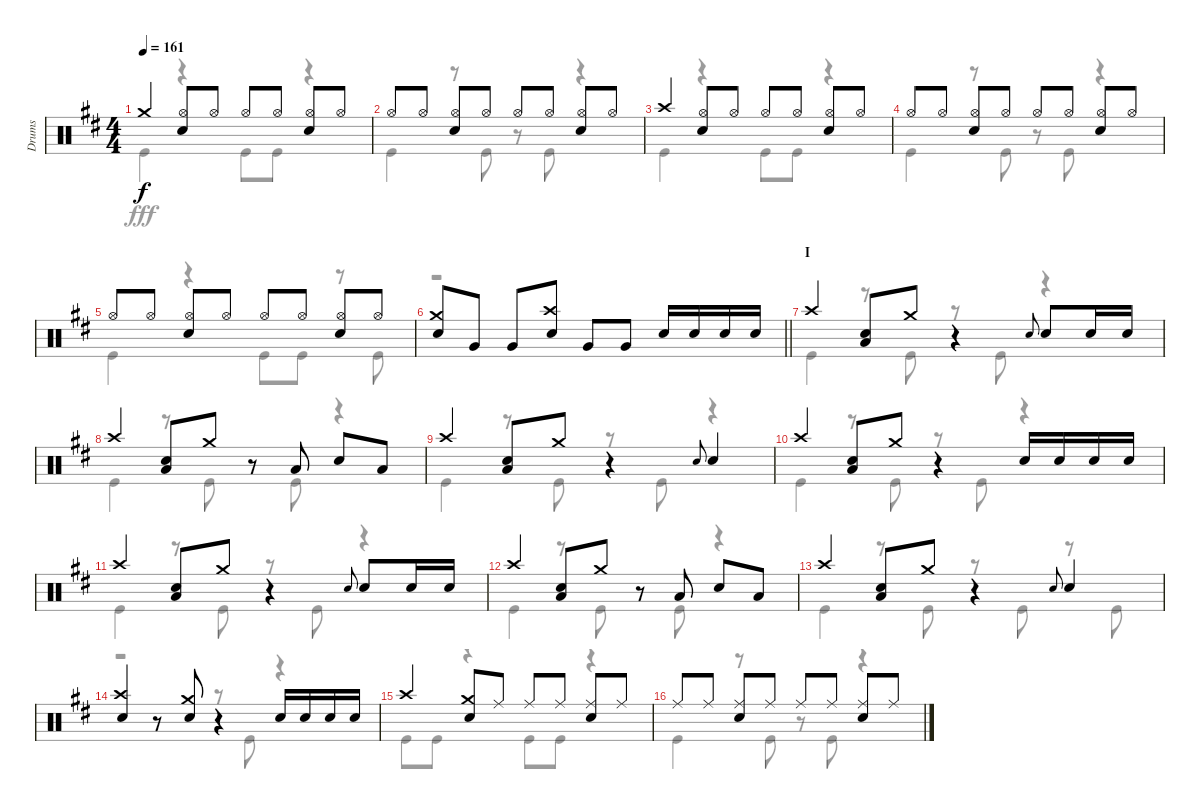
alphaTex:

\track ("Drums" "Drums") {instrument percussion}
\staff {score}
\articulation defaults
\voice
\ts (4 4)
\tempo 161
\clef neutral
\ks d "Crash medium (hit)".4{dy f}
("Hi-Hat (open)" "Snare (hit) 2").8 "Hi-Hat (open)".8 "Hi-Hat (open)".8 "Hi-Hat (open)".8 ("Hi-Hat (open)" "Snare (hit) 2").8 "Hi-Hat (open)".8 |
"Hi-Hat (open)".8 "Hi-Hat (open)".8 ("Hi-Hat (open)" "Snare (hit) 2").8 "Hi-Hat (open)".8 "Hi-Hat (open)".8 "Hi-Hat (open)".8 ("Hi-Hat (open)" "Snare (hit) 2").8 "Hi-Hat (open)".8 |
"Crash high (hit)".4 ("Hi-Hat (open)" "Snare (hit) 2").8 "Hi-Hat (open)".8 "Hi-Hat (open)".8 "Hi-Hat (open)".8 ("Hi-Hat (open)" "Snare (hit) 2").8 "Hi-Hat (open)".8 |
"Hi-Hat (open)".8 "Hi-Hat (open)".8 ("Hi-Hat (open)" "Snare (hit) 2").8 "Hi-Hat (open)".8 "Hi-Hat (open)".8 "Hi-Hat (open)".8 ("Hi-Hat (open)" "Snare (hit) 2").8 "Hi-Hat (open)".8 |
"Hi-Hat (open)".8 "Hi-Hat (open)".8 ("Hi-Hat (open)" "Snare (hit) 2").8 "Hi-Hat (open)".8 "Hi-Hat (open)".8 "Hi-Hat (open)".8 ("Hi-Hat (open)" "Snare (hit) 2").8 "Hi-Hat (open)".8 |
\barLineRight lightlight
("Crash medium (hit)" "Snare (hit) 2").8 "Very Low Tom (hit)".8 "Very Low Tom (hit)".8 ("Crash high (hit)" "Snare (hit) 2").8 "Very Low Tom (hit)".8 "Very Low Tom (hit)".8 "Snare (hit) 2".16 "Snare (hit) 2".16 "Snare (hit) 2".16 "Snare (hit) 2".16 |
\section ("" "I")
"Crash high (hit)".4 ("Snare (hit) 2" "Low Tom (hit)").8 "Crash medium (hit)".8 r.4 "Snare (hit) 2".8{gr onbeat} "Snare (hit) 2".8 "Snare (hit) 2".16 "Snare (hit) 2".16 |
"Crash high (hit)".4 ("Snare (hit) 2" "Low Tom (hit)").8 "Crash medium (hit)".8 r.8 "Low Tom (hit)".8 "Snare (hit) 2".8 "Low Tom (hit)".8 |
"Crash high (hit)".4 ("Snare (hit) 2" "Low Tom (hit)").8 "Crash medium (hit)".8 r.4 "Snare (hit) 2".8{gr onbeat} "Snare (hit) 2".4 |
"Crash high (hit)".4 ("Snare (hit) 2" "Low Tom (hit)").8 "Crash medium (hit)".8 r.4 "Snare (hit) 2".16 "Snare (hit) 2".16 "Snare (hit) 2".16 "Snare (hit) 2".16 |
"Crash high (hit)".4 ("Snare (hit) 2" "Low Tom (hit)").8 "Crash medium (hit)".8 r.4 "Snare (hit) 2".8{gr onbeat} "Snare (hit) 2".8 "Snare (hit) 2".16 "Snare (hit) 2".16 |
"Crash high (hit)".4 ("Snare (hit) 2" "Low Tom (hit)").8 "Crash medium (hit)".8 r.8 "Low Tom (hit)".8 "Snare (hit) 2".8 "Low Tom (hit)".8 |
"Crash high (hit)".4 ("Snare (hit) 2" "Low Tom (hit)").8 "Crash medium (hit)".8 r.4 "Snare (hit) 2".8{gr onbeat} "Snare (hit) 2".4 |
("Crash high (hit)" "Snare (hit) 2").4 r.8 ("Crash medium (hit)" "Snare (hit) 2").8 r.4 "Snare (hit) 2".16 "Snare (hit) 2".16 "Snare (hit) 2".16 "Snare (hit) 2".16 |
"Crash high (hit)".4 ("Crash medium (hit)" "Snare (hit) 2").8 "Ride (middle)".8 "Ride (middle)".8 "Ride (middle)".8 ("Ride (middle)" "Snare (hit) 2").8 "Ride (middle)".8 |
"Ride (middle)".8 "Ride (middle)".8 ("Ride (middle)" "Snare (hit) 2").8 "Ride (middle)".8 "Ride (middle)".8 "Ride (middle)".8 ("Ride (middle)" "Snare (hit) 2").8 "Ride (middle)".8
\voice
\clef neutral
\ottava regular
\simile none
\ks d "Kick (hit)".4{dy fff}
r.4 "Kick (hit)".8 "Kick (hit)".8 r.4 |
"Kick (hit)".4 r.8 "Kick (hit)".8 r.8 "Kick (hit)".8 r.4 |
"Kick (hit)".4 r.4 "Kick (hit)".8 "Kick (hit)".8 r.4 |
"Kick (hit)".4 r.8 "Kick (hit)".8 r.8 "Kick (hit)".8 r.4 |
"Kick (hit)".4 r.4 "Kick (hit)".8 "Kick (hit)".8 r.8 "Kick (hit)".8 |
\barLineRight lightlight
r.1 |
"Kick (hit)".4 r.8 "Kick (hit)".8 r.8 "Kick (hit)".8 r.4 |
"Kick (hit)".4 r.8 "Kick (hit)".8 r.8 "Kick (hit)".8 r.4 |
"Kick (hit)".4 r.8 "Kick (hit)".8 r.8 "Kick (hit)".8 r.4 |
"Kick (hit)".4 r.8 "Kick (hit)".8 r.8 "Kick (hit)".8 r.4 |
"Kick (hit)".4 r.8 "Kick (hit)".8 r.8 "Kick (hit)".8 r.4 |
"Kick (hit)".4 r.8 "Kick (hit)".8 r.8 "Kick (hit)".8 r.4 |
"Kick (hit)".4 r.8 "Kick (hit)".8 r.8 "Kick (hit)".8 r.8 "Kick (hit)".8 |
r.2 r.8 "Kick (hit)".8 r.4 |
"Kick (hit)".8 "Kick (hit)".8 r.4 "Kick (hit)".8 "Kick (hit)".8 r.4 |
"Kick (hit)".4 r.8 "Kick (hit)".8 r.8 "Kick (hit)".8 r.4
